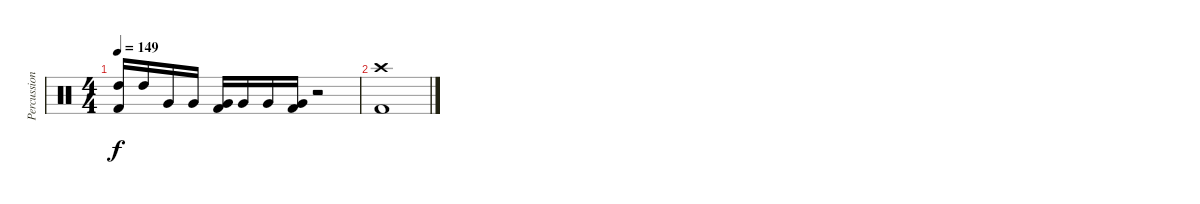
\track ("Percussion" "Percussion") {instrument percussion}
\staff {score}
\articulation defaults
\ts (4 4)
\tempo 149
\clef neutral
\ks c
("High Tom (hit)" "Kick (hit) 2").16{dy f} "High Tom (hit)".16 "Very Low Tom (hit)".16 "Very Low Tom (hit)".16 ("Very Low Tom (hit)" "Kick (hit) 2").16 "Very Low Tom (hit)".16 "Very Low Tom (hit)".16 ("Very Low Tom (hit)" "Kick (hit) 2").16 r.2 |
("Crash high (hit)" "Kick (hit) 2").1
